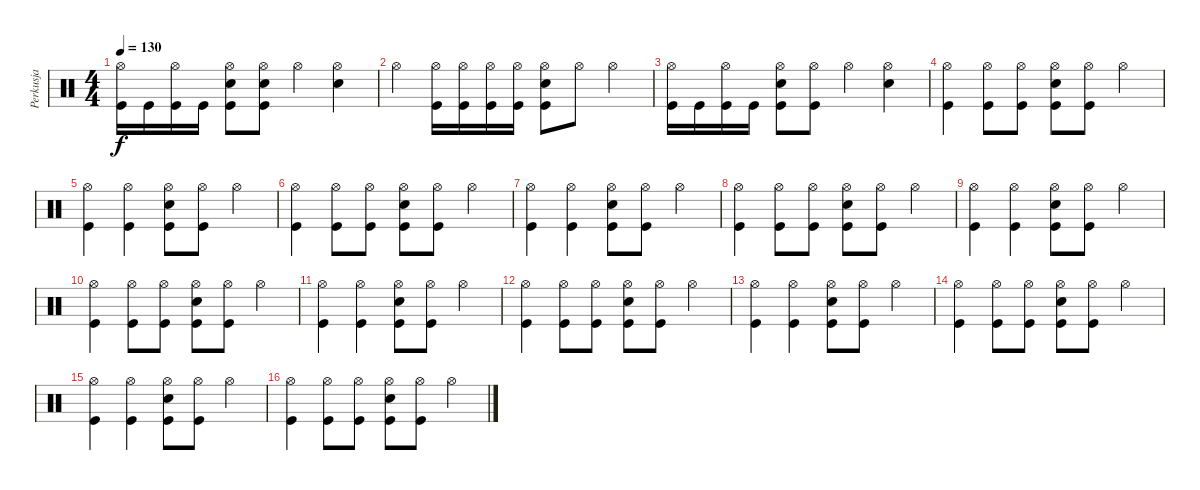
\track ("Perkusja" "Perkusja") {instrument percussion}
\staff {score}
\articulation defaults
\ts (4 4)
\tempo 130
\clef neutral
\ks c
("Hi-Hat (open)" "Kick (hit)").16{dy f} "Kick (hit)".16 ("Hi-Hat (open)" "Kick (hit)").16 "Kick (hit)".16 ("Hi-Hat (open)" "Metronome (bell)" "Kick (hit)").8 ("Hi-Hat (open)" "Metronome (bell)" "Kick (hit)").8 "Hi-Hat (open)".4 ("Hi-Hat (open)" "Metronome (bell)").4 |
"Hi-Hat (open)".4 ("Hi-Hat (open)" "Kick (hit)").16 ("Hi-Hat (open)" "Kick (hit)").16 ("Hi-Hat (open)" "Kick (hit)").16 ("Hi-Hat (open)" "Kick (hit)").16 ("Hi-Hat (open)" "Metronome (bell)" "Kick (hit)").8 "Hi-Hat (open)".8 "Hi-Hat (open)".4 |
("Hi-Hat (open)" "Kick (hit)").16 "Kick (hit)".16 ("Hi-Hat (open)" "Kick (hit)").16 "Kick (hit)".16 ("Hi-Hat (open)" "Metronome (bell)" "Kick (hit)").8 ("Hi-Hat (open)" "Kick (hit)").8 "Hi-Hat (open)".4 ("Hi-Hat (open)" "Metronome (bell)").4 |
("Hi-Hat (open)" "Kick (hit)").4 ("Hi-Hat (open)" "Kick (hit)").8 ("Hi-Hat (open)" "Kick (hit)").8 ("Hi-Hat (open)" "Metronome (bell)" "Kick (hit)").8 ("Hi-Hat (open)" "Kick (hit)").8 "Hi-Hat (open)".4 |
("Hi-Hat (open)" "Kick (hit)").4 ("Hi-Hat (open)" "Kick (hit)").4 ("Hi-Hat (open)" "Metronome (bell)" "Kick (hit)").8 ("Hi-Hat (open)" "Kick (hit)").8 "Hi-Hat (open)".4 |
("Hi-Hat (open)" "Kick (hit)").4 ("Hi-Hat (open)" "Kick (hit)").8 ("Hi-Hat (open)" "Kick (hit)").8 ("Hi-Hat (open)" "Metronome (bell)" "Kick (hit)").8 ("Hi-Hat (open)" "Kick (hit)").8 "Hi-Hat (open)".4 |
("Hi-Hat (open)" "Kick (hit)").4 ("Hi-Hat (open)" "Kick (hit)").4 ("Hi-Hat (open)" "Metronome (bell)" "Kick (hit)").8 ("Hi-Hat (open)" "Kick (hit)").8 "Hi-Hat (open)".4 |
("Hi-Hat (open)" "Kick (hit)").4 ("Hi-Hat (open)" "Kick (hit)").8 ("Hi-Hat (open)" "Kick (hit)").8 ("Hi-Hat (open)" "Metronome (bell)" "Kick (hit)").8 ("Hi-Hat (open)" "Kick (hit)").8 "Hi-Hat (open)".4 |
("Hi-Hat (open)" "Kick (hit)").4 ("Hi-Hat (open)" "Kick (hit)").4 ("Hi-Hat (open)" "Metronome (bell)" "Kick (hit)").8 ("Hi-Hat (open)" "Kick (hit)").8 "Hi-Hat (open)".4 |
("Hi-Hat (open)" "Kick (hit)").4 ("Hi-Hat (open)" "Kick (hit)").8 ("Hi-Hat (open)" "Kick (hit)").8 ("Hi-Hat (open)" "Metronome (bell)" "Kick (hit)").8 ("Hi-Hat (open)" "Kick (hit)").8 "Hi-Hat (open)".4 |
("Hi-Hat (open)" "Kick (hit)").4 ("Hi-Hat (open)" "Kick (hit)").4 ("Hi-Hat (open)" "Metronome (bell)" "Kick (hit)").8 ("Hi-Hat (open)" "Kick (hit)").8 "Hi-Hat (open)".4 |
("Hi-Hat (open)" "Kick (hit)").4 ("Hi-Hat (open)" "Kick (hit)").8 ("Hi-Hat (open)" "Kick (hit)").8 ("Hi-Hat (open)" "Metronome (bell)" "Kick (hit)").8 ("Hi-Hat (open)" "Kick (hit)").8 "Hi-Hat (open)".4 |
("Hi-Hat (open)" "Kick (hit)").4 ("Hi-Hat (open)" "Kick (hit)").4 ("Hi-Hat (open)" "Metronome (bell)" "Kick (hit)").8 ("Hi-Hat (open)" "Kick (hit)").8 "Hi-Hat (open)".4 |
("Hi-Hat (open)" "Kick (hit)").4 ("Hi-Hat (open)" "Kick (hit)").8 ("Hi-Hat (open)" "Kick (hit)").8 ("Hi-Hat (open)" "Metronome (bell)" "Kick (hit)").8 ("Hi-Hat (open)" "Kick (hit)").8 "Hi-Hat (open)".4 |
("Hi-Hat (open)" "Kick (hit)").4 ("Hi-Hat (open)" "Kick (hit)").4 ("Hi-Hat (open)" "Metronome (bell)" "Kick (hit)").8 ("Hi-Hat (open)" "Kick (hit)").8 "Hi-Hat (open)".4 |
("Hi-Hat (open)" "Kick (hit)").4 ("Hi-Hat (open)" "Kick (hit)").8 ("Hi-Hat (open)" "Kick (hit)").8 ("Hi-Hat (open)" "Metronome (bell)" "Kick (hit)").8 ("Hi-Hat (open)" "Kick (hit)").8 "Hi-Hat (open)".4
